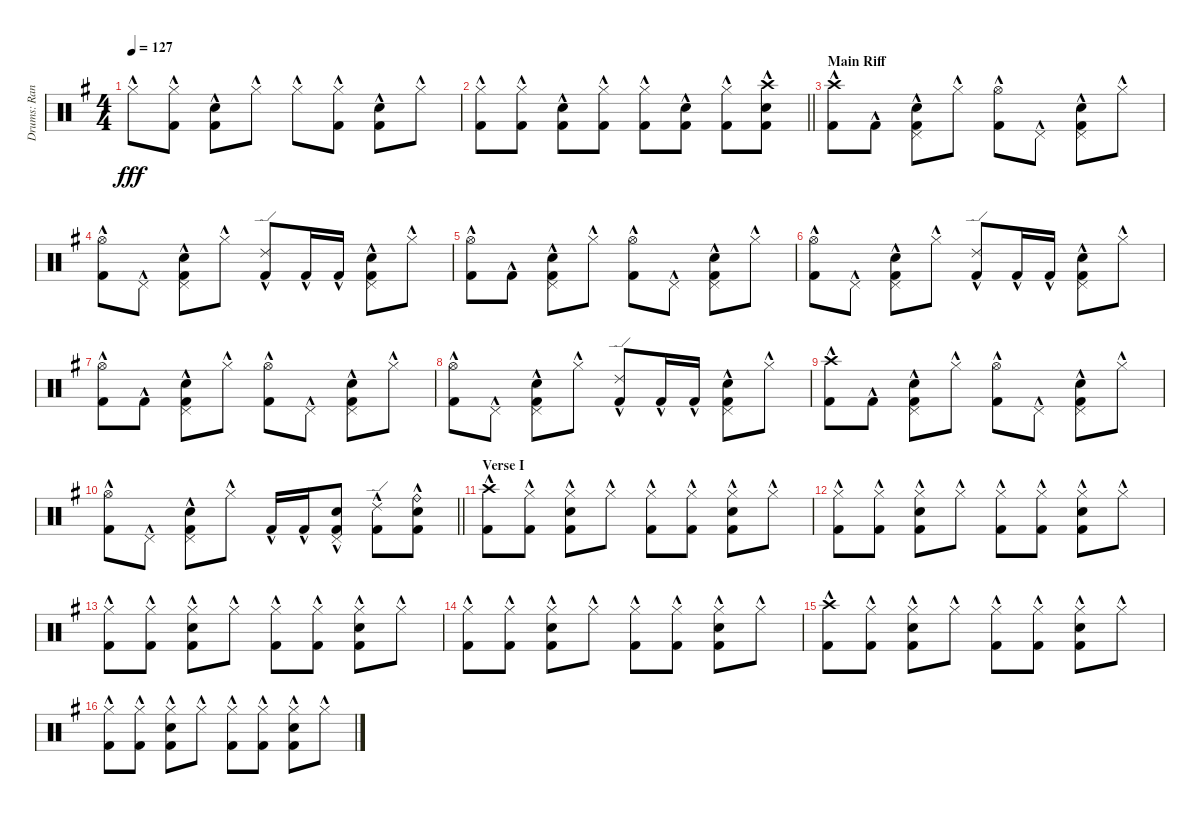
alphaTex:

\track ("Drums: Randy" "Drums: Ran") {instrument percussion}
\staff {score}
\articulation defaults
\ts (4 4)
\tempo 127
\clef neutral
\ks g "Hi-Hat (closed)"{hac}.8{dy fff}
("Hi-Hat (closed)"{hac} "Kick (hit) 2"{hac}).8 ("Snare (hit) 2"{hac} "Kick (hit) 2"{hac}).8 "Hi-Hat (closed)"{hac}.8 "Hi-Hat (closed)"{hac}.8 ("Hi-Hat (closed)"{hac} "Kick (hit) 2"{hac}).8 ("Snare (hit) 2"{hac} "Kick (hit) 2"{hac}).8 "Hi-Hat (closed)"{hac}.8 |
\barLineRight lightlight
("Hi-Hat (closed)"{hac} "Kick (hit) 2"{hac}).8 ("Hi-Hat (closed)"{hac} "Kick (hit) 2"{hac}).8 ("Snare (hit) 2"{hac} "Kick (hit) 2"{hac}).8 ("Hi-Hat (closed)"{hac} "Kick (hit) 2"{hac}).8 ("Hi-Hat (closed)"{hac} "Kick (hit) 2"{hac}).8 ("Snare (hit) 2"{hac} "Kick (hit) 2"{hac}).8 ("Hi-Hat (closed)"{hac} "Kick (hit) 2"{hac}).8 ("Crash high (hit)"{hac} "Snare (hit) 2"{hac} "Kick (hit) 2"{hac}).8 |
\section ("" "Main Riff")
("Crash high (hit)"{hac} "Kick (hit) 2"{hac}).8 "Kick (hit) 2"{hac}.8 ("Pedal Hi-Hat (hit)"{hac} "Snare (hit) 2"{hac} "Kick (hit) 2"{hac}).8 "Hi-Hat (closed)"{hac}.8 ("Hi-Hat (open)"{hac} "Kick (hit) 2"{hac}).8 "Pedal Hi-Hat (hit)"{hac}.8 ("Pedal Hi-Hat (hit)"{hac} "Snare (hit) 2"{hac} "Kick (hit) 2"{hac}).8 "Hi-Hat (closed)"{hac}.8 |
("Hi-Hat (open)"{hac} "Kick (hit) 2"{hac}).8 "Pedal Hi-Hat (hit)"{hac}.8 ("Pedal Hi-Hat (hit)"{hac} "Snare (hit) 2"{hac} "Kick (hit) 2"{hac}).8 "Hi-Hat (closed)"{hac}.8 ("Ride (edge) 2"{hac} "Kick (hit) 2"{hac}).8 "Kick (hit) 2"{hac}.16 "Kick (hit) 2"{hac}.16 ("Pedal Hi-Hat (hit)"{hac} "Snare (hit) 2"{hac} "Kick (hit) 2"{hac}).8 "Hi-Hat (closed)"{hac}.8 |
("Hi-Hat (open)"{hac} "Kick (hit) 2"{hac}).8 "Kick (hit) 2"{hac}.8 ("Pedal Hi-Hat (hit)"{hac} "Snare (hit) 2"{hac} "Kick (hit) 2"{hac}).8 "Hi-Hat (closed)"{hac}.8 ("Hi-Hat (open)"{hac} "Kick (hit) 2"{hac}).8 "Pedal Hi-Hat (hit)"{hac}.8 ("Pedal Hi-Hat (hit)"{hac} "Snare (hit) 2"{hac} "Kick (hit) 2"{hac}).8 "Hi-Hat (closed)"{hac}.8 |
("Hi-Hat (open)"{hac} "Kick (hit) 2"{hac}).8 "Pedal Hi-Hat (hit)"{hac}.8 ("Pedal Hi-Hat (hit)"{hac} "Snare (hit) 2"{hac} "Kick (hit) 2"{hac}).8 "Hi-Hat (closed)"{hac}.8 ("Ride (edge) 2"{hac} "Kick (hit) 2"{hac}).8 "Kick (hit) 2"{hac}.16 "Kick (hit) 2"{hac}.16 ("Pedal Hi-Hat (hit)"{hac} "Snare (hit) 2"{hac} "Kick (hit) 2"{hac}).8 "Hi-Hat (closed)"{hac}.8 |
("Hi-Hat (open)"{hac} "Kick (hit) 2"{hac}).8 "Kick (hit) 2"{hac}.8 ("Pedal Hi-Hat (hit)"{hac} "Snare (hit) 2"{hac} "Kick (hit) 2"{hac}).8 "Hi-Hat (closed)"{hac}.8 ("Hi-Hat (open)"{hac} "Kick (hit) 2"{hac}).8 "Pedal Hi-Hat (hit)"{hac}.8 ("Pedal Hi-Hat (hit)"{hac} "Snare (hit) 2"{hac} "Kick (hit) 2"{hac}).8 "Hi-Hat (closed)"{hac}.8 |
("Hi-Hat (open)"{hac} "Kick (hit) 2"{hac}).8 "Pedal Hi-Hat (hit)"{hac}.8 ("Pedal Hi-Hat (hit)"{hac} "Snare (hit) 2"{hac} "Kick (hit) 2"{hac}).8 "Hi-Hat (closed)"{hac}.8 ("Ride (edge) 2"{hac} "Kick (hit) 2"{hac}).8 "Kick (hit) 2"{hac}.16 "Kick (hit) 2"{hac}.16 ("Pedal Hi-Hat (hit)"{hac} "Snare (hit) 2"{hac} "Kick (hit) 2"{hac}).8 "Hi-Hat (closed)"{hac}.8 |
("Crash high (hit)"{hac} "Kick (hit) 2"{hac}).8 "Kick (hit) 2"{hac}.8 ("Pedal Hi-Hat (hit)"{hac} "Snare (hit) 2"{hac} "Kick (hit) 2"{hac}).8 "Hi-Hat (closed)"{hac}.8 ("Hi-Hat (open)"{hac} "Kick (hit) 2"{hac}).8 "Pedal Hi-Hat (hit)"{hac}.8 ("Pedal Hi-Hat (hit)"{hac} "Snare (hit) 2"{hac} "Kick (hit) 2"{hac}).8 "Hi-Hat (closed)"{hac}.8 |
\barLineRight lightlight
("Hi-Hat (open)"{hac} "Kick (hit) 2"{hac}).8 "Pedal Hi-Hat (hit)"{hac}.8 ("Pedal Hi-Hat (hit)"{hac} "Snare (hit) 2"{hac} "Kick (hit) 2"{hac}).8 "Hi-Hat (closed)"{hac}.8 "Kick (hit) 2"{hac}.16 "Kick (hit) 2"{hac}.16 ("Pedal Hi-Hat (hit)"{hac} "Snare (hit) 2"{hac} "Kick (hit) 2"{hac}).8 ("Ride (edge) 2"{hac} "Kick (hit) 2"{hac}).8 ("Ride (bell)"{hac} "Snare (hit) 2"{hac} "Kick (hit) 2"{hac}).8 |
\section ("" "Verse I")
("Crash high (hit)"{hac} "Kick (hit) 2"{hac}).8 ("Hi-Hat (closed)"{hac} "Kick (hit) 2"{hac}).8 ("Hi-Hat (closed)"{hac} "Snare (hit) 2"{hac} "Kick (hit) 2"{hac}).8 "Hi-Hat (closed)"{hac}.8 ("Hi-Hat (closed)"{hac} "Kick (hit) 2"{hac}).8 ("Hi-Hat (closed)"{hac} "Kick (hit) 2"{hac}).8 ("Hi-Hat (closed)"{hac} "Snare (hit) 2"{hac} "Kick (hit) 2"{hac}).8 "Hi-Hat (closed)"{hac}.8 |
("Hi-Hat (closed)"{hac} "Kick (hit) 2"{hac}).8 ("Hi-Hat (closed)"{hac} "Kick (hit) 2"{hac}).8 ("Hi-Hat (closed)"{hac} "Snare (hit) 2"{hac} "Kick (hit) 2"{hac}).8 "Hi-Hat (closed)"{hac}.8 ("Hi-Hat (closed)"{hac} "Kick (hit) 2"{hac}).8 ("Hi-Hat (closed)"{hac} "Kick (hit) 2"{hac}).8 ("Hi-Hat (closed)"{hac} "Snare (hit) 2"{hac} "Kick (hit) 2"{hac}).8 "Hi-Hat (closed)"{hac}.8 |
("Hi-Hat (closed)"{hac} "Kick (hit) 2"{hac}).8 ("Hi-Hat (closed)"{hac} "Kick (hit) 2"{hac}).8 ("Hi-Hat (closed)"{hac} "Snare (hit) 2"{hac} "Kick (hit) 2"{hac}).8 "Hi-Hat (closed)"{hac}.8 ("Hi-Hat (closed)"{hac} "Kick (hit) 2"{hac}).8 ("Hi-Hat (closed)"{hac} "Kick (hit) 2"{hac}).8 ("Hi-Hat (closed)"{hac} "Snare (hit) 2"{hac} "Kick (hit) 2"{hac}).8 "Hi-Hat (closed)"{hac}.8 |
("Hi-Hat (closed)"{hac} "Kick (hit) 2"{hac}).8 ("Hi-Hat (closed)"{hac} "Kick (hit) 2"{hac}).8 ("Hi-Hat (closed)"{hac} "Snare (hit) 2"{hac} "Kick (hit) 2"{hac}).8 "Hi-Hat (closed)"{hac}.8 ("Hi-Hat (closed)"{hac} "Kick (hit) 2"{hac}).8 ("Hi-Hat (closed)"{hac} "Kick (hit) 2"{hac}).8 ("Hi-Hat (closed)"{hac} "Snare (hit) 2"{hac} "Kick (hit) 2"{hac}).8 "Hi-Hat (closed)"{hac}.8 |
("Crash high (hit)"{hac} "Kick (hit) 2"{hac}).8 ("Hi-Hat (closed)"{hac} "Kick (hit) 2"{hac}).8 ("Hi-Hat (closed)"{hac} "Snare (hit) 2"{hac} "Kick (hit) 2"{hac}).8 "Hi-Hat (closed)"{hac}.8 ("Hi-Hat (closed)"{hac} "Kick (hit) 2"{hac}).8 ("Hi-Hat (closed)"{hac} "Kick (hit) 2"{hac}).8 ("Hi-Hat (closed)"{hac} "Snare (hit) 2"{hac} "Kick (hit) 2"{hac}).8 "Hi-Hat (closed)"{hac}.8 |
("Hi-Hat (closed)"{hac} "Kick (hit) 2"{hac}).8 ("Hi-Hat (closed)"{hac} "Kick (hit) 2"{hac}).8 ("Hi-Hat (closed)"{hac} "Snare (hit) 2"{hac} "Kick (hit) 2"{hac}).8 "Hi-Hat (closed)"{hac}.8 ("Hi-Hat (closed)"{hac} "Kick (hit) 2"{hac}).8 ("Hi-Hat (closed)"{hac} "Kick (hit) 2"{hac}).8 ("Hi-Hat (closed)"{hac} "Snare (hit) 2"{hac} "Kick (hit) 2"{hac}).8 "Hi-Hat (closed)"{hac}.8
